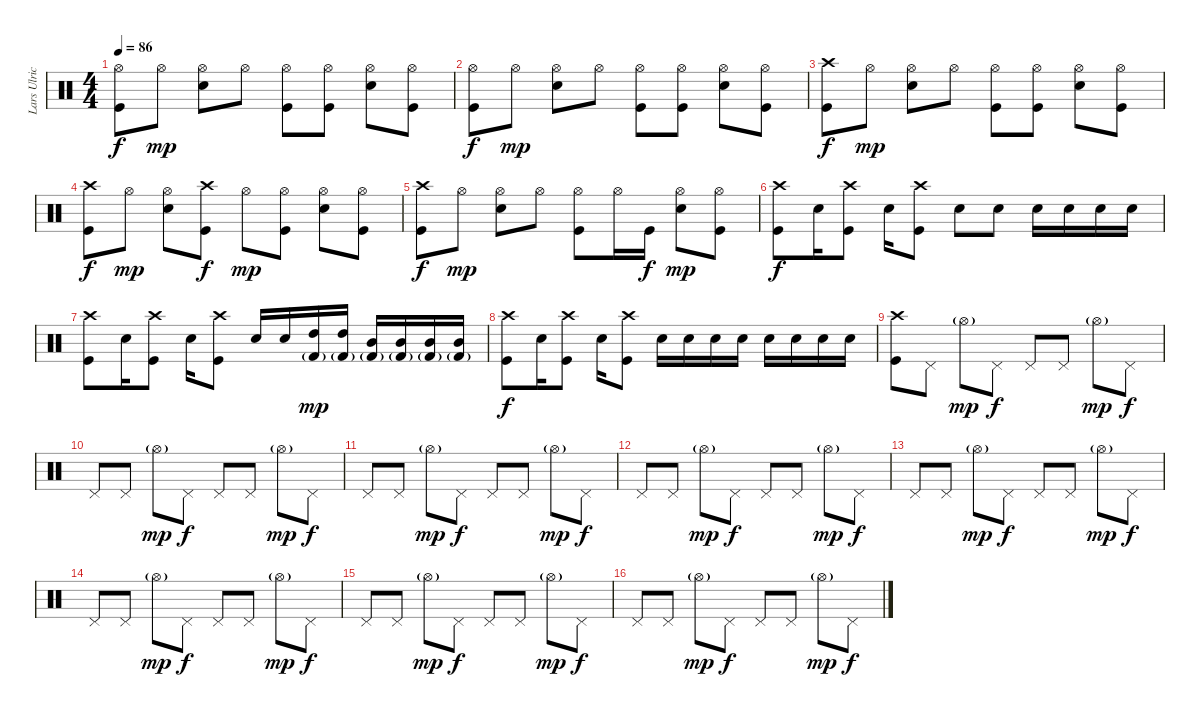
\track ("Lars Ulrich" "Lars Ulric") {instrument percussion}
\staff {score}
\articulation defaults
\ts (4 4)
\tempo 86
\clef neutral
\ks c
("Hi-Hat (open)" "Kick (hit)").8{dy f} "Hi-Hat (open)".8{dy mp} ("Hi-Hat (open)" "Snare (hit) 2").8 "Hi-Hat (open)".8 ("Hi-Hat (open)" "Kick (hit)").8 ("Hi-Hat (open)" "Kick (hit)").8 ("Hi-Hat (open)" "Snare (hit) 2").8 ("Hi-Hat (open)" "Kick (hit)").8 |
("Hi-Hat (open)" "Kick (hit)").8{dy f} "Hi-Hat (open)".8{dy mp} ("Hi-Hat (open)" "Snare (hit) 2").8 "Hi-Hat (open)".8 ("Hi-Hat (open)" "Kick (hit)").8 ("Hi-Hat (open)" "Kick (hit)").8 ("Hi-Hat (open)" "Snare (hit) 2").8 ("Hi-Hat (open)" "Kick (hit)").8 |
("Crash high (hit)" "Kick (hit)").8{dy f} "Hi-Hat (open)".8{dy mp} ("Hi-Hat (open)" "Snare (hit) 2").8 "Hi-Hat (open)".8 ("Hi-Hat (open)" "Kick (hit)").8 ("Hi-Hat (open)" "Kick (hit)").8 ("Hi-Hat (open)" "Snare (hit) 2").8 ("Hi-Hat (open)" "Kick (hit)").8 |
("Crash high (hit)" "Kick (hit)").8{dy f} "Hi-Hat (open)".8{dy mp} ("Hi-Hat (open)" "Snare (hit) 2").8 ("Crash high (hit)" "Kick (hit)").8{dy f} "Hi-Hat (open)".8{dy mp} ("Hi-Hat (open)" "Kick (hit)").8 ("Hi-Hat (open)" "Snare (hit) 2").8 ("Hi-Hat (open)" "Kick (hit)").8 |
("Crash high (hit)" "Kick (hit)").8{dy f} "Hi-Hat (open)".8{dy mp} ("Hi-Hat (open)" "Snare (hit) 2").8 "Hi-Hat (open)".8 ("Hi-Hat (open)" "Kick (hit)").8 "Hi-Hat (open)".16 "Kick (hit)".16{dy f} ("Hi-Hat (open)" "Snare (hit) 2").8{dy mp} ("Hi-Hat (open)" "Kick (hit)").8 |
("Crash high (hit)" "Kick (hit)").8{dy f} "Snare (hit) 2".16 ("Crash high (hit)" "Kick (hit)").8 "Snare (hit) 2".16 ("Crash high (hit)" "Kick (hit)").8 "Snare (hit) 2".8 "Snare (hit) 2".8 "Snare (hit) 2".16 "Snare (hit) 2".16 "Snare (hit) 2".16 "Snare (hit) 2".16 |
("Crash high (hit)" "Kick (hit)").8 "Snare (hit) 2".16 ("Crash high (hit)" "Kick (hit)").8 "Snare (hit) 2".16 ("Crash high (hit)" "Kick (hit)").8 "Snare (hit) 2".16 "Snare (hit) 2".16 ("High Tom (hit)" "Kick (hit) 2"{g}).16{dy mp} ("High Tom (hit)" "Kick (hit) 2"{g}).16 ("Mid Tom (hit)" "Kick (hit) 2"{g}).16 ("Mid Tom (hit)" "Kick (hit) 2"{g}).16 ("Mid Tom (hit)" "Kick (hit) 2"{g}).16 ("Mid Tom (hit)" "Kick (hit) 2"{g}).16 |
("Crash high (hit)" "Kick (hit)").8{dy f} "Snare (hit) 2".16 ("Crash high (hit)" "Kick (hit)").8 "Snare (hit) 2".16 ("Crash high (hit)" "Kick (hit)").8 "Snare (hit) 2".16 "Snare (hit) 2".16 "Snare (hit) 2".16 "Snare (hit) 2".16 "Snare (hit) 2".16 "Snare (hit) 2".16 "Snare (hit) 2".16 "Snare (hit) 2".16 |
("Crash high (hit)" "Kick (hit)").8 "Pedal Hi-Hat (hit)".8 "Hi-Hat (open)"{g}.8{dy mp} "Pedal Hi-Hat (hit)".8{dy f} "Pedal Hi-Hat (hit)".8 "Pedal Hi-Hat (hit)".8 "Hi-Hat (open)"{g}.8{dy mp} "Pedal Hi-Hat (hit)".8{dy f} |
"Pedal Hi-Hat (hit)".8 "Pedal Hi-Hat (hit)".8 "Hi-Hat (open)"{g}.8{dy mp} "Pedal Hi-Hat (hit)".8{dy f} "Pedal Hi-Hat (hit)".8 "Pedal Hi-Hat (hit)".8 "Hi-Hat (open)"{g}.8{dy mp} "Pedal Hi-Hat (hit)".8{dy f} |
"Pedal Hi-Hat (hit)".8 "Pedal Hi-Hat (hit)".8 "Hi-Hat (open)"{g}.8{dy mp} "Pedal Hi-Hat (hit)".8{dy f} "Pedal Hi-Hat (hit)".8 "Pedal Hi-Hat (hit)".8 "Hi-Hat (open)"{g}.8{dy mp} "Pedal Hi-Hat (hit)".8{dy f} |
"Pedal Hi-Hat (hit)".8 "Pedal Hi-Hat (hit)".8 "Hi-Hat (open)"{g}.8{dy mp} "Pedal Hi-Hat (hit)".8{dy f} "Pedal Hi-Hat (hit)".8 "Pedal Hi-Hat (hit)".8 "Hi-Hat (open)"{g}.8{dy mp} "Pedal Hi-Hat (hit)".8{dy f} |
"Pedal Hi-Hat (hit)".8 "Pedal Hi-Hat (hit)".8 "Hi-Hat (open)"{g}.8{dy mp} "Pedal Hi-Hat (hit)".8{dy f} "Pedal Hi-Hat (hit)".8 "Pedal Hi-Hat (hit)".8 "Hi-Hat (open)"{g}.8{dy mp} "Pedal Hi-Hat (hit)".8{dy f} |
"Pedal Hi-Hat (hit)".8 "Pedal Hi-Hat (hit)".8 "Hi-Hat (open)"{g}.8{dy mp} "Pedal Hi-Hat (hit)".8{dy f} "Pedal Hi-Hat (hit)".8 "Pedal Hi-Hat (hit)".8 "Hi-Hat (open)"{g}.8{dy mp} "Pedal Hi-Hat (hit)".8{dy f} |
"Pedal Hi-Hat (hit)".8 "Pedal Hi-Hat (hit)".8 "Hi-Hat (open)"{g}.8{dy mp} "Pedal Hi-Hat (hit)".8{dy f} "Pedal Hi-Hat (hit)".8 "Pedal Hi-Hat (hit)".8 "Hi-Hat (open)"{g}.8{dy mp} "Pedal Hi-Hat (hit)".8{dy f} |
"Pedal Hi-Hat (hit)".8 "Pedal Hi-Hat (hit)".8 "Hi-Hat (open)"{g}.8{dy mp} "Pedal Hi-Hat (hit)".8{dy f} "Pedal Hi-Hat (hit)".8 "Pedal Hi-Hat (hit)".8 "Hi-Hat (open)"{g}.8{dy mp} "Pedal Hi-Hat (hit)".8{dy f}
